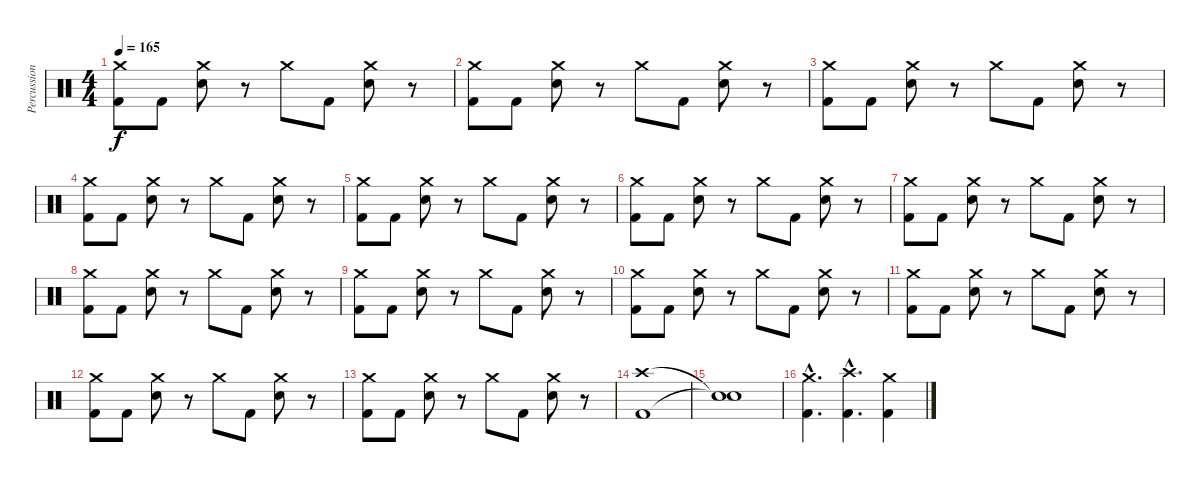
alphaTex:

\track ("Percussion" "Percussion") {instrument percussion}
\staff {score}
\articulation defaults
\ts (4 4)
\tempo 165
\clef neutral
\ks c
("Crash medium (hit)" "Kick (hit) 2").8{dy f} "Kick (hit) 2".8 ("Crash medium (hit)" "Electric Snare (hit)").8 r.8 "Crash medium (hit)".8 "Kick (hit) 2".8 ("Crash medium (hit)" "Electric Snare (hit)").8 r.8 |
("Crash medium (hit)" "Kick (hit) 2").8 "Kick (hit) 2".8 ("Crash medium (hit)" "Electric Snare (hit)").8 r.8 "Crash medium (hit)".8 "Kick (hit) 2".8 ("Crash medium (hit)" "Electric Snare (hit)").8 r.8 |
("Crash medium (hit)" "Kick (hit) 2").8 "Kick (hit) 2".8 ("Crash medium (hit)" "Electric Snare (hit)").8 r.8 "Crash medium (hit)".8 "Kick (hit) 2".8 ("Crash medium (hit)" "Electric Snare (hit)").8 r.8 |
("Crash medium (hit)" "Kick (hit) 2").8 "Kick (hit) 2".8 ("Crash medium (hit)" "Electric Snare (hit)").8 r.8 "Crash medium (hit)".8 "Kick (hit) 2".8 ("Crash medium (hit)" "Electric Snare (hit)").8 r.8 |
("Crash medium (hit)" "Kick (hit) 2").8 "Kick (hit) 2".8 ("Crash medium (hit)" "Electric Snare (hit)").8 r.8 "Crash medium (hit)".8 "Kick (hit) 2".8 ("Crash medium (hit)" "Electric Snare (hit)").8 r.8 |
("Crash medium (hit)" "Kick (hit) 2").8 "Kick (hit) 2".8 ("Crash medium (hit)" "Electric Snare (hit)").8 r.8 "Crash medium (hit)".8 "Kick (hit) 2".8 ("Crash medium (hit)" "Electric Snare (hit)").8 r.8 |
("Crash medium (hit)" "Kick (hit) 2").8 "Kick (hit) 2".8 ("Crash medium (hit)" "Electric Snare (hit)").8 r.8 "Crash medium (hit)".8 "Kick (hit) 2".8 ("Crash medium (hit)" "Electric Snare (hit)").8 r.8 |
("Crash medium (hit)" "Kick (hit) 2").8 "Kick (hit) 2".8 ("Crash medium (hit)" "Electric Snare (hit)").8 r.8 "Crash medium (hit)".8 "Kick (hit) 2".8 ("Crash medium (hit)" "Electric Snare (hit)").8 r.8 |
("Crash medium (hit)" "Kick (hit) 2").8 "Kick (hit) 2".8 ("Crash medium (hit)" "Electric Snare (hit)").8 r.8 "Crash medium (hit)".8 "Kick (hit) 2".8 ("Crash medium (hit)" "Electric Snare (hit)").8 r.8 |
("Crash medium (hit)" "Kick (hit) 2").8 "Kick (hit) 2".8 ("Crash medium (hit)" "Electric Snare (hit)").8 r.8 "Crash medium (hit)".8 "Kick (hit) 2".8 ("Crash medium (hit)" "Electric Snare (hit)").8 r.8 |
("Crash medium (hit)" "Kick (hit) 2").8 "Kick (hit) 2".8 ("Crash medium (hit)" "Electric Snare (hit)").8 r.8 "Crash medium (hit)".8 "Kick (hit) 2".8 ("Crash medium (hit)" "Electric Snare (hit)").8 r.8 |
("Crash medium (hit)" "Kick (hit) 2").8 "Kick (hit) 2".8 ("Crash medium (hit)" "Electric Snare (hit)").8 r.8 "Crash medium (hit)".8 "Kick (hit) 2".8 ("Crash medium (hit)" "Electric Snare (hit)").8 r.8 |
("Crash medium (hit)" "Kick (hit) 2").8 "Kick (hit) 2".8 ("Crash medium (hit)" "Electric Snare (hit)").8 r.8 "Crash medium (hit)".8 "Kick (hit) 2".8 ("Crash medium (hit)" "Electric Snare (hit)").8 r.8 |
("Crash high (hit)" "Kick (hit) 2").1 |
("Snare (hit)"{t} "Snare (hit)"{t}).1 |
("Crash medium (hit)"{hac} "Kick (hit) 2"{hac}).4{d} ("Crash high (hit)"{hac} "Kick (hit) 2"{hac}).4{d} ("Crash medium (hit)" "Kick (hit) 2").4
